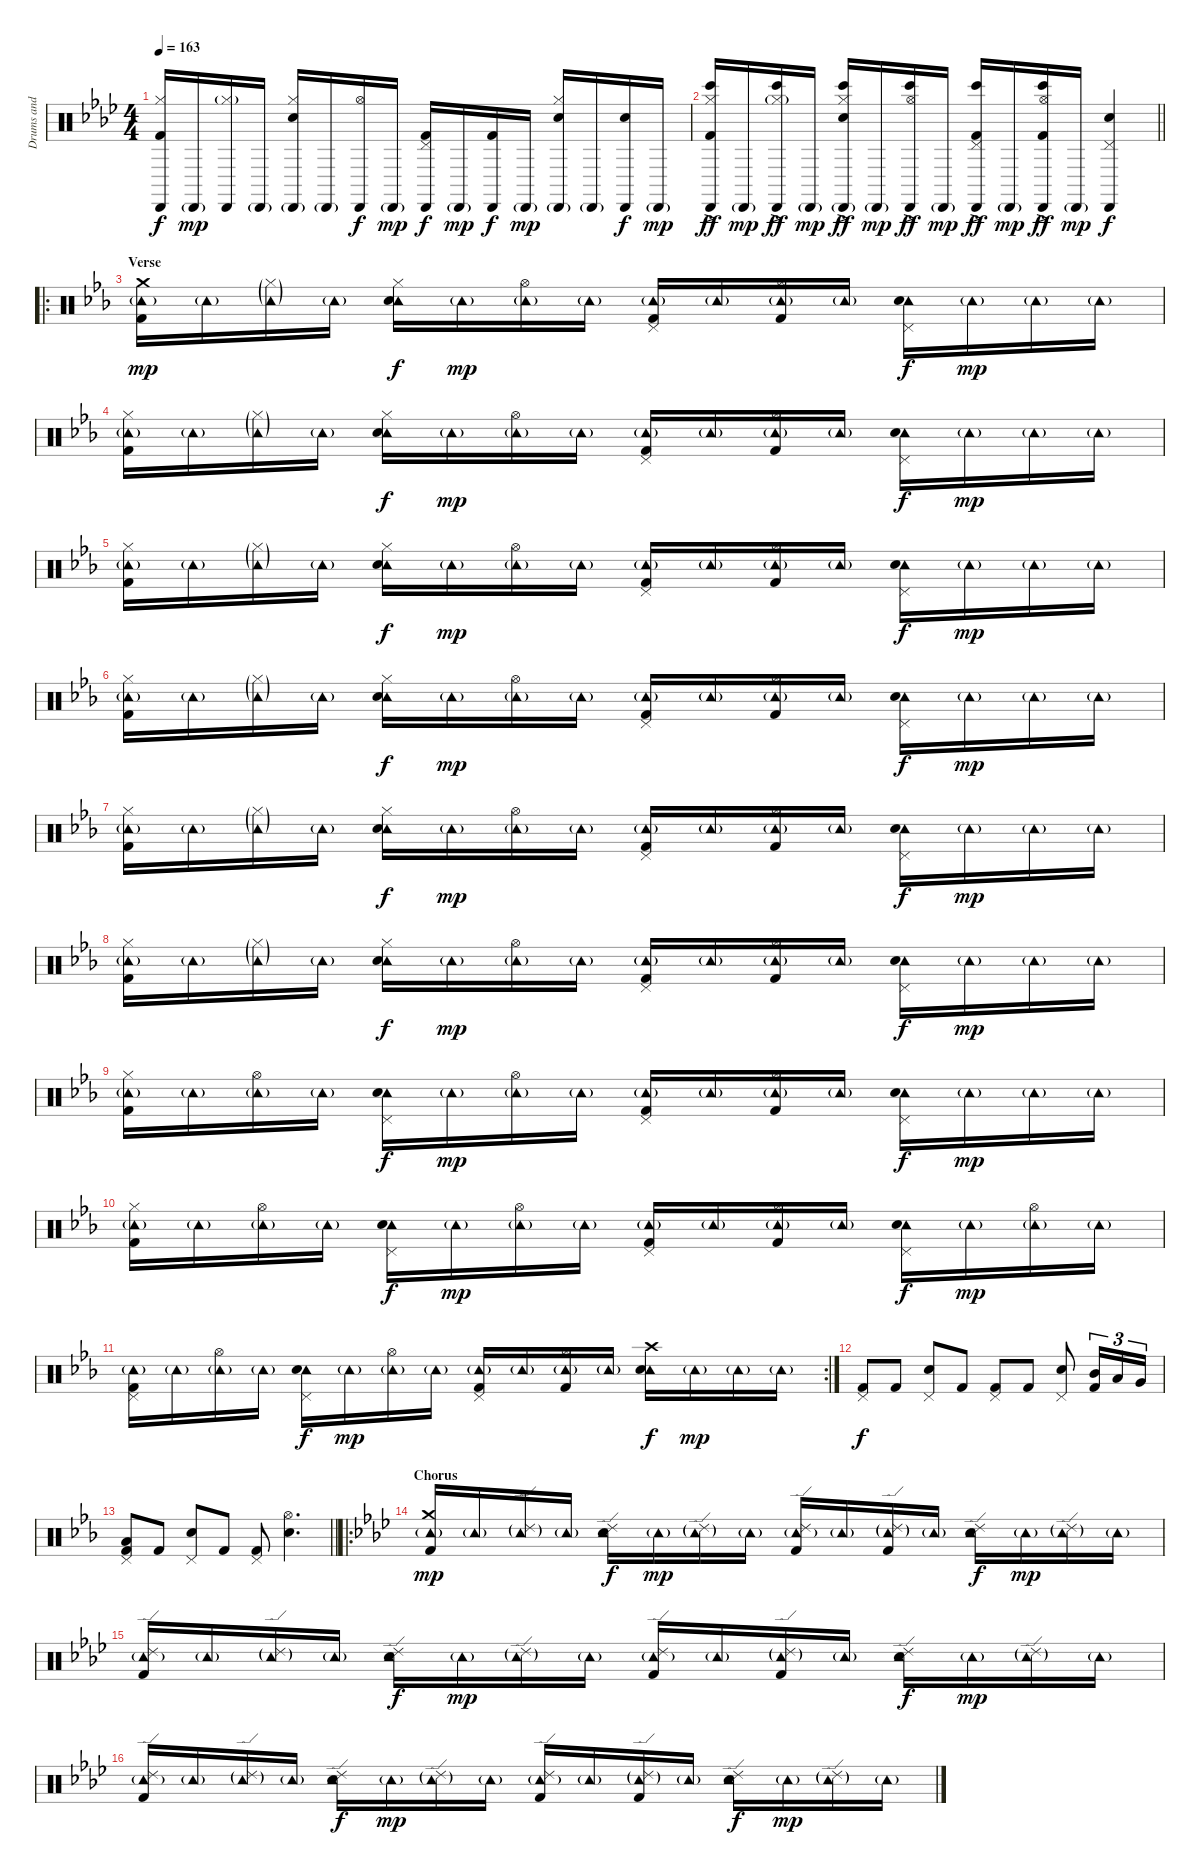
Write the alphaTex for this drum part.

\track ("Drums and Perc." "Drums and ") {instrument percussion}
\staff {score}
\articulation defaults
\ts (4 4)
\tempo 163
\clef neutral
\ks fminor
("Hi-Hat (closed)" "Cabasa (hit)" "Kick (hit) 2").16{dy f} "Cabasa (hit)"{g}.16{dy mp} ("Hi-Hat (closed)"{g} "Cabasa (hit)").16 "Cabasa (hit)"{g}.16 ("Hi-Hat (closed)" "Cabasa (hit)"{g} "Snare (hit) 2").16 "Cabasa (hit)"{g}.16 ("Hi-Hat (open)" "Cabasa (hit)").16{dy f} "Cabasa (hit)"{g}.16{dy mp} ("Pedal Hi-Hat (hit)" "Cabasa (hit)" "Kick (hit) 2").16{dy f} "Cabasa (hit)"{g}.16{dy mp} ("Cabasa (hit)" "Kick (hit) 2").16{dy f} "Cabasa (hit)"{g}.16{dy mp} ("Hi-Hat (closed)" "Cabasa (hit)"{g} "Snare (hit) 2").16 "Cabasa (hit)"{g}.16 ("Cabasa (hit)" "Snare (hit) 2").16{dy f} "Cabasa (hit)"{g}.16{dy mp} |
\barLineRight lightlight
("Hi-Hat (closed)" "Cabasa (hit)" "Bongo High (hit)"{ac} "Kick (hit) 2").16{dy ff} "Cabasa (hit)"{g}.16{dy mp} ("Hi-Hat (closed)"{g} "Cabasa (hit)" "Bongo High (hit)"{ac}).16{dy ff} "Cabasa (hit)"{g}.16{dy mp} ("Hi-Hat (closed)" "Cabasa (hit)"{g} "Bongo High (hit)"{ac} "Snare (hit) 2").16{dy ff} "Cabasa (hit)"{g}.16{dy mp} ("Hi-Hat (open)" "Cabasa (hit)" "Bongo High (hit)"{ac}).16{dy ff} "Cabasa (hit)"{g}.16{dy mp} ("Pedal Hi-Hat (hit)" "Cabasa (hit)" "Bongo High (hit)"{ac} "Kick (hit) 2").16{dy ff} "Cabasa (hit)"{g}.16{dy mp} ("Hi-Hat (open)" "Cabasa (hit)" "Bongo High (hit)"{ac} "Kick (hit) 2").16{dy ff} "Cabasa (hit)"{g}.16{dy mp} ("Pedal Hi-Hat (hit)" "Cabasa (hit)" "Snare (hit) 2").4{dy f} |
\ro
\section ("" "Verse")
\ks cminor
("Crash medium (hit)" "Tambourine (hit)"{g} "Kick (hit) 2").16{dy mp} "Tambourine (hit)"{g}.16 ("Hi-Hat (closed)"{g} "Tambourine (hit)"{g}).16 "Tambourine (hit)"{g}.16 ("Hi-Hat (closed)" "Tambourine (hit)" "Snare (hit) 2").16{dy f} "Tambourine (hit)"{g}.16{dy mp} ("Hi-Hat (open)" "Tambourine (hit)"{g}).16 "Tambourine (hit)"{g}.16 ("Pedal Hi-Hat (hit)" "Tambourine (hit)"{g} "Kick (hit) 2").16 "Tambourine (hit)"{g}.16 ("Hi-Hat (open)" "Tambourine (hit)"{g} "Kick (hit) 2").16 "Tambourine (hit)"{g}.16 ("Pedal Hi-Hat (hit)" "Tambourine (hit)" "Snare (hit) 2").16{dy f} "Tambourine (hit)"{g}.16{dy mp} "Tambourine (hit)"{g}.16 "Tambourine (hit)"{g}.16 |
("Hi-Hat (closed)" "Tambourine (hit)"{g} "Kick (hit) 2").16 "Tambourine (hit)"{g}.16 ("Hi-Hat (closed)"{g} "Tambourine (hit)"{g}).16 "Tambourine (hit)"{g}.16 ("Hi-Hat (closed)" "Tambourine (hit)" "Snare (hit) 2").16{dy f} "Tambourine (hit)"{g}.16{dy mp} ("Hi-Hat (open)" "Tambourine (hit)"{g}).16 "Tambourine (hit)"{g}.16 ("Pedal Hi-Hat (hit)" "Tambourine (hit)"{g} "Kick (hit) 2").16 "Tambourine (hit)"{g}.16 ("Hi-Hat (open)" "Tambourine (hit)"{g} "Kick (hit) 2").16 "Tambourine (hit)"{g}.16 ("Pedal Hi-Hat (hit)" "Tambourine (hit)" "Snare (hit) 2").16{dy f} "Tambourine (hit)"{g}.16{dy mp} "Tambourine (hit)"{g}.16 "Tambourine (hit)"{g}.16 |
("Hi-Hat (closed)" "Tambourine (hit)"{g} "Kick (hit) 2").16 "Tambourine (hit)"{g}.16 ("Hi-Hat (closed)"{g} "Tambourine (hit)"{g}).16 "Tambourine (hit)"{g}.16 ("Hi-Hat (closed)" "Tambourine (hit)" "Snare (hit) 2").16{dy f} "Tambourine (hit)"{g}.16{dy mp} ("Hi-Hat (open)" "Tambourine (hit)"{g}).16 "Tambourine (hit)"{g}.16 ("Pedal Hi-Hat (hit)" "Tambourine (hit)"{g} "Kick (hit) 2").16 "Tambourine (hit)"{g}.16 ("Hi-Hat (open)" "Tambourine (hit)"{g} "Kick (hit) 2").16 "Tambourine (hit)"{g}.16 ("Pedal Hi-Hat (hit)" "Tambourine (hit)" "Snare (hit) 2").16{dy f} "Tambourine (hit)"{g}.16{dy mp} "Tambourine (hit)"{g}.16 "Tambourine (hit)"{g}.16 |
("Hi-Hat (closed)" "Tambourine (hit)"{g} "Kick (hit) 2").16 "Tambourine (hit)"{g}.16 ("Hi-Hat (closed)"{g} "Tambourine (hit)"{g}).16 "Tambourine (hit)"{g}.16 ("Hi-Hat (closed)" "Tambourine (hit)" "Snare (hit) 2").16{dy f} "Tambourine (hit)"{g}.16{dy mp} ("Hi-Hat (open)" "Tambourine (hit)"{g}).16 "Tambourine (hit)"{g}.16 ("Pedal Hi-Hat (hit)" "Tambourine (hit)"{g} "Kick (hit) 2").16 "Tambourine (hit)"{g}.16 ("Hi-Hat (open)" "Tambourine (hit)"{g} "Kick (hit) 2").16 "Tambourine (hit)"{g}.16 ("Pedal Hi-Hat (hit)" "Tambourine (hit)" "Snare (hit) 2").16{dy f} "Tambourine (hit)"{g}.16{dy mp} "Tambourine (hit)"{g}.16 "Tambourine (hit)"{g}.16 |
("Hi-Hat (closed)" "Tambourine (hit)"{g} "Kick (hit) 2").16 "Tambourine (hit)"{g}.16 ("Hi-Hat (closed)"{g} "Tambourine (hit)"{g}).16 "Tambourine (hit)"{g}.16 ("Hi-Hat (closed)" "Tambourine (hit)" "Snare (hit) 2").16{dy f} "Tambourine (hit)"{g}.16{dy mp} ("Hi-Hat (open)" "Tambourine (hit)"{g}).16 "Tambourine (hit)"{g}.16 ("Pedal Hi-Hat (hit)" "Tambourine (hit)"{g} "Kick (hit) 2").16 "Tambourine (hit)"{g}.16 ("Hi-Hat (open)" "Tambourine (hit)"{g} "Kick (hit) 2").16 "Tambourine (hit)"{g}.16 ("Pedal Hi-Hat (hit)" "Tambourine (hit)" "Snare (hit) 2").16{dy f} "Tambourine (hit)"{g}.16{dy mp} "Tambourine (hit)"{g}.16 "Tambourine (hit)"{g}.16 |
("Hi-Hat (closed)" "Tambourine (hit)"{g} "Kick (hit) 2").16 "Tambourine (hit)"{g}.16 ("Hi-Hat (closed)"{g} "Tambourine (hit)"{g}).16 "Tambourine (hit)"{g}.16 ("Hi-Hat (closed)" "Tambourine (hit)" "Snare (hit) 2").16{dy f} "Tambourine (hit)"{g}.16{dy mp} ("Hi-Hat (open)" "Tambourine (hit)"{g}).16 "Tambourine (hit)"{g}.16 ("Pedal Hi-Hat (hit)" "Tambourine (hit)"{g} "Kick (hit) 2").16 "Tambourine (hit)"{g}.16 ("Hi-Hat (open)" "Tambourine (hit)"{g} "Kick (hit) 2").16 "Tambourine (hit)"{g}.16 ("Pedal Hi-Hat (hit)" "Tambourine (hit)" "Snare (hit) 2").16{dy f} "Tambourine (hit)"{g}.16{dy mp} "Tambourine (hit)"{g}.16 "Tambourine (hit)"{g}.16 |
("Hi-Hat (closed)" "Tambourine (hit)"{g} "Kick (hit) 2").16 "Tambourine (hit)"{g}.16 ("Hi-Hat (open)" "Tambourine (hit)"{g}).16 "Tambourine (hit)"{g}.16 ("Pedal Hi-Hat (hit)" "Tambourine (hit)" "Snare (hit) 2").16{dy f} "Tambourine (hit)"{g}.16{dy mp} ("Hi-Hat (open)" "Tambourine (hit)"{g}).16 "Tambourine (hit)"{g}.16 ("Pedal Hi-Hat (hit)" "Tambourine (hit)"{g} "Kick (hit) 2").16 "Tambourine (hit)"{g}.16 ("Hi-Hat (open)" "Tambourine (hit)"{g} "Kick (hit) 2").16 "Tambourine (hit)"{g}.16 ("Pedal Hi-Hat (hit)" "Tambourine (hit)" "Snare (hit) 2").16{dy f} "Tambourine (hit)"{g}.16{dy mp} "Tambourine (hit)"{g}.16 "Tambourine (hit)"{g}.16 |
("Hi-Hat (closed)" "Tambourine (hit)"{g} "Kick (hit) 2").16 "Tambourine (hit)"{g}.16 ("Hi-Hat (open)" "Tambourine (hit)"{g}).16 "Tambourine (hit)"{g}.16 ("Pedal Hi-Hat (hit)" "Tambourine (hit)" "Snare (hit) 2").16{dy f} "Tambourine (hit)"{g}.16{dy mp} ("Hi-Hat (open)" "Tambourine (hit)"{g}).16 "Tambourine (hit)"{g}.16 ("Pedal Hi-Hat (hit)" "Tambourine (hit)"{g} "Kick (hit) 2").16 "Tambourine (hit)"{g}.16 ("Hi-Hat (open)" "Tambourine (hit)"{g} "Kick (hit) 2").16 "Tambourine (hit)"{g}.16 ("Pedal Hi-Hat (hit)" "Tambourine (hit)" "Snare (hit) 2").16{dy f} "Tambourine (hit)"{g}.16{dy mp} ("Hi-Hat (open)" "Tambourine (hit)"{g}).16 "Tambourine (hit)"{g}.16 |
\rc 2
("Pedal Hi-Hat (hit)" "Tambourine (hit)"{g} "Kick (hit) 2").16 "Tambourine (hit)"{g}.16 ("Hi-Hat (open)" "Tambourine (hit)"{g}).16 "Tambourine (hit)"{g}.16 ("Pedal Hi-Hat (hit)" "Tambourine (hit)" "Snare (hit) 2").16{dy f} "Tambourine (hit)"{g}.16{dy mp} ("Hi-Hat (open)" "Tambourine (hit)"{g}).16 "Tambourine (hit)"{g}.16 ("Pedal Hi-Hat (hit)" "Tambourine (hit)"{g} "Kick (hit) 2").16 "Tambourine (hit)"{g}.16 ("Hi-Hat (open)" "Tambourine (hit)"{g} "Kick (hit) 2").16 "Tambourine (hit)"{g}.16 ("Crash high (hit)" "Tambourine (hit)" "Snare (hit) 2").16{dy f} "Tambourine (hit)"{g}.16{dy mp} "Tambourine (hit)"{g}.16 "Tambourine (hit)"{g}.16 |
("Pedal Hi-Hat (hit)" "Kick (hit) 2").8{dy f} "Kick (hit) 2".8 ("Pedal Hi-Hat (hit)" "Snare (hit) 2").8 "Kick (hit) 2".8 ("Pedal Hi-Hat (hit)" "Kick (hit) 2").8 "Kick (hit) 2".8 ("Pedal Hi-Hat (hit)" "Snare (hit) 2").8 ("Mid Tom (hit)" "Kick (hit) 2").16{tu (3 2)} "Low Tom (hit)".16{tu (3 2)} "Very Low Tom (hit)".16{tu (3 2)} |
\barLineRight lightlight
("Pedal Hi-Hat (hit)" "Low Floor Tom (hit)" "Kick (hit) 2").8 "Kick (hit) 2".8 ("Pedal Hi-Hat (hit)" "Snare (hit) 2").8 "Kick (hit) 2".8 ("Pedal Hi-Hat (hit)" "Kick (hit) 2").8 ("Hi-Hat (open)" "Snare (hit) 2").4{d} |
\ro
\section ("" "Chorus")
\ks fminor
("Crash medium (hit)" "Tambourine (hit)"{g} "Kick (hit) 2").16{dy mp} "Tambourine (hit)"{g}.16 ("Ride (edge) 2"{g} "Tambourine (hit)"{g}).16 "Tambourine (hit)"{g}.16 ("Ride (edge) 2" "Tambourine (hit)" "Snare (hit) 2").16{dy f} "Tambourine (hit)"{g}.16{dy mp} ("Ride (edge) 2"{g} "Tambourine (hit)"{g}).16 "Tambourine (hit)"{g}.16 ("Ride (edge) 2" "Tambourine (hit)"{g} "Kick (hit) 2").16 "Tambourine (hit)"{g}.16 ("Ride (edge) 2"{g} "Tambourine (hit)"{g} "Kick (hit) 2").16 "Tambourine (hit)"{g}.16 ("Ride (edge) 2" "Tambourine (hit)" "Snare (hit) 2").16{dy f} "Tambourine (hit)"{g}.16{dy mp} ("Ride (edge) 2"{g} "Tambourine (hit)"{g}).16 "Tambourine (hit)"{g}.16 |
("Ride (edge) 2" "Tambourine (hit)"{g} "Kick (hit) 2").16 "Tambourine (hit)"{g}.16 ("Ride (edge) 2"{g} "Tambourine (hit)"{g}).16 "Tambourine (hit)"{g}.16 ("Ride (edge) 2" "Tambourine (hit)" "Snare (hit) 2").16{dy f} "Tambourine (hit)"{g}.16{dy mp} ("Ride (edge) 2"{g} "Tambourine (hit)"{g}).16 "Tambourine (hit)"{g}.16 ("Ride (edge) 2" "Tambourine (hit)"{g} "Kick (hit) 2").16 "Tambourine (hit)"{g}.16 ("Ride (edge) 2"{g} "Tambourine (hit)"{g} "Kick (hit) 2").16 "Tambourine (hit)"{g}.16 ("Ride (edge) 2" "Tambourine (hit)" "Snare (hit) 2").16{dy f} "Tambourine (hit)"{g}.16{dy mp} ("Ride (edge) 2"{g} "Tambourine (hit)"{g}).16 "Tambourine (hit)"{g}.16 |
("Ride (edge) 2" "Tambourine (hit)"{g} "Kick (hit) 2").16 "Tambourine (hit)"{g}.16 ("Ride (edge) 2"{g} "Tambourine (hit)"{g}).16 "Tambourine (hit)"{g}.16 ("Ride (edge) 2" "Tambourine (hit)" "Snare (hit) 2").16{dy f} "Tambourine (hit)"{g}.16{dy mp} ("Ride (edge) 2"{g} "Tambourine (hit)"{g}).16 "Tambourine (hit)"{g}.16 ("Ride (edge) 2" "Tambourine (hit)"{g} "Kick (hit) 2").16 "Tambourine (hit)"{g}.16 ("Ride (edge) 2"{g} "Tambourine (hit)"{g} "Kick (hit) 2").16 "Tambourine (hit)"{g}.16 ("Ride (edge) 2" "Tambourine (hit)" "Snare (hit) 2").16{dy f} "Tambourine (hit)"{g}.16{dy mp} ("Ride (edge) 2"{g} "Tambourine (hit)"{g}).16 "Tambourine (hit)"{g}.16
